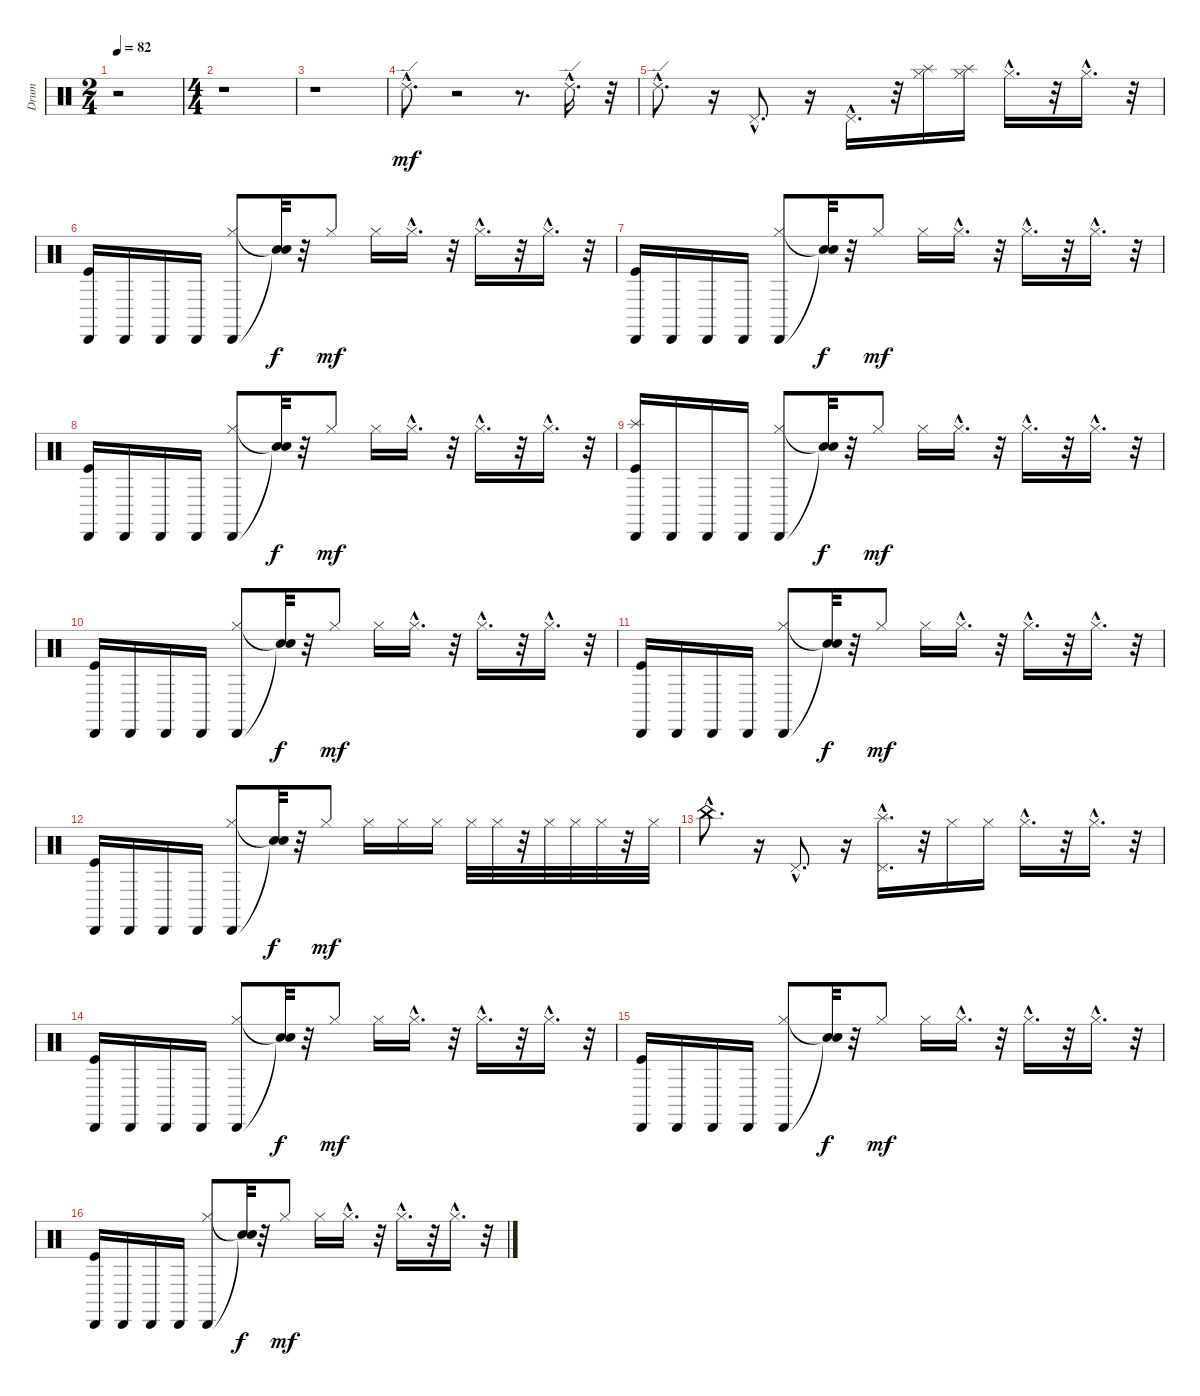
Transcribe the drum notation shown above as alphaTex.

\track ("Drum" "Drum") {instrument percussion}
\staff {score}
\articulation defaults
\ts (2 4)
\tempo 82
\clef neutral
\ks c
r.2{dy mf} |
\ts (4 4)
r.1 |
r.1 |
"Ride (edge) 2"{hac}.8{d} r.2 r.8{d} "Ride (edge) 2"{hac}.16{d} r.32 |
"Ride (edge) 2"{hac}.8{d} r.16 "Pedal Hi-Hat (hit)"{hac}.8{d} r.16 "Pedal Hi-Hat (hit)"{hac}.16{d} r.32 ("Splash (hit)" "Hi-Hat (closed)").16 ("Splash (hit)" "Hi-Hat (closed)").16 "Hi-Hat (closed)"{hac}.16{d} r.32 "Hi-Hat (closed)"{hac}.16{d} r.32 |
("Kick (hit)" "Cabasa (hit)").16 "Cabasa (hit)".16 "Cabasa (hit)".16 "Cabasa (hit)".16 ("Hi-Hat (closed)" "Cabasa (hit)").8 ("Snare (hit)"{t} "Snare (hit)"{t}).32{dy f} r.32 "Hi-Hat (closed)".8{dy mf} "Hi-Hat (closed)".16 "Hi-Hat (closed)"{hac}.16{d} r.32 "Hi-Hat (closed)"{hac}.16{d} r.32 "Hi-Hat (closed)"{hac}.16{d} r.32 |
("Cabasa (hit)" "Kick (hit)").16 "Cabasa (hit)".16 "Cabasa (hit)".16 "Cabasa (hit)".16 ("Cabasa (hit)" "Hi-Hat (closed)").8 ("Snare (hit)"{t} "Snare (hit)"{t}).32{dy f} r.32 "Hi-Hat (closed)".8{dy mf} "Hi-Hat (closed)".16 "Hi-Hat (closed)"{hac}.16{d} r.32 "Hi-Hat (closed)"{hac}.16{d} r.32 "Hi-Hat (closed)"{hac}.16{d} r.32 |
("Cabasa (hit)" "Kick (hit)").16 "Cabasa (hit)".16 "Cabasa (hit)".16 "Cabasa (hit)".16 ("Cabasa (hit)" "Hi-Hat (closed)").8 ("Snare (hit)"{t} "Snare (hit)"{t}).32{dy f} r.32 "Hi-Hat (closed)".8{dy mf} "Hi-Hat (closed)".16 "Hi-Hat (closed)"{hac}.16{d} r.32 "Hi-Hat (closed)"{hac}.16{d} r.32 "Hi-Hat (closed)"{hac}.16{d} r.32 |
("Splash (hit)" "Cabasa (hit)" "Kick (hit)").16 "Cabasa (hit)".16 "Cabasa (hit)".16 "Cabasa (hit)".16 ("Cabasa (hit)" "Hi-Hat (closed)").8 ("Snare (hit)"{t} "Snare (hit)"{t}).32{dy f} r.32 "Hi-Hat (closed)".8{dy mf} "Hi-Hat (closed)".16 "Hi-Hat (closed)"{hac}.16{d} r.32 "Hi-Hat (closed)"{hac}.16{d} r.32 "Hi-Hat (closed)"{hac}.16{d} r.32 |
("Kick (hit)" "Cabasa (hit)").16 "Cabasa (hit)".16 "Cabasa (hit)".16 "Cabasa (hit)".16 ("Cabasa (hit)" "Hi-Hat (closed)").8 ("Snare (hit)"{t} "Snare (hit)"{t}).32{dy f} r.32 "Hi-Hat (closed)".8{dy mf} "Hi-Hat (closed)".16 "Hi-Hat (closed)"{hac}.16{d} r.32 "Hi-Hat (closed)"{hac}.16{d} r.32 "Hi-Hat (closed)"{hac}.16{d} r.32 |
("Kick (hit)" "Cabasa (hit)").16 "Cabasa (hit)".16 "Cabasa (hit)".16 "Cabasa (hit)".16 ("Cabasa (hit)" "Hi-Hat (closed)").8 ("Snare (hit)"{t} "Snare (hit)"{t}).32{dy f} r.32 "Hi-Hat (closed)".8{dy mf} "Hi-Hat (closed)".16 "Hi-Hat (closed)"{hac}.16{d} r.32 "Hi-Hat (closed)"{hac}.16{d} r.32 "Hi-Hat (closed)"{hac}.16{d} r.32 |
("Kick (hit)" "Cabasa (hit)").16 "Cabasa (hit)".16 "Cabasa (hit)".16 "Cabasa (hit)".16 ("Cabasa (hit)" "Hi-Hat (closed)").8 ("Snare (hit)"{t} "Snare (hit)"{t}).32{dy f} r.32 "Hi-Hat (closed)".8{dy mf} "Hi-Hat (closed)".16 "Hi-Hat (closed)".16 "Hi-Hat (closed)".16 "Hi-Hat (closed)".32 "Hi-Hat (closed)".32 r.32 "Hi-Hat (closed)".32 "Hi-Hat (closed)".32 "Hi-Hat (closed)".32 r.32 "Hi-Hat (closed)".32 |
"China (hit)"{hac}.8{d} r.16 "Pedal Hi-Hat (hit)"{hac}.8{d} r.16 ("Splash (hit)"{hac} "Pedal Hi-Hat (hit)"{hac}).16{d} r.32 "Hi-Hat (closed)".16 "Hi-Hat (closed)".16 "Hi-Hat (closed)"{hac}.16{d} r.32 "Hi-Hat (closed)"{hac}.16{d} r.32 |
("Kick (hit)" "Cabasa (hit)").16 "Cabasa (hit)".16 "Cabasa (hit)".16 "Cabasa (hit)".16 ("Hi-Hat (closed)" "Cabasa (hit)").8 ("Snare (hit)"{t} "Snare (hit)"{t}).32{dy f} r.32 "Hi-Hat (closed)".8{dy mf} "Hi-Hat (closed)".16 "Hi-Hat (closed)"{hac}.16{d} r.32 "Hi-Hat (closed)"{hac}.16{d} r.32 "Hi-Hat (closed)"{hac}.16{d} r.32 |
("Kick (hit)" "Cabasa (hit)").16 "Cabasa (hit)".16 "Cabasa (hit)".16 "Cabasa (hit)".16 ("Hi-Hat (closed)" "Cabasa (hit)").8 ("Snare (hit)"{t} "Snare (hit)"{t}).32{dy f} r.32 "Hi-Hat (closed)".8{dy mf} "Hi-Hat (closed)".16 "Hi-Hat (closed)"{hac}.16{d} r.32 "Hi-Hat (closed)"{hac}.16{d} r.32 "Hi-Hat (closed)"{hac}.16{d} r.32 |
("Kick (hit)" "Cabasa (hit)").16 "Cabasa (hit)".16 "Cabasa (hit)".16 "Cabasa (hit)".16 ("Hi-Hat (closed)" "Cabasa (hit)").8 ("Snare (hit)"{t} "Snare (hit)"{t}).32{dy f} r.32 "Hi-Hat (closed)".8{dy mf} "Hi-Hat (closed)".16 "Hi-Hat (closed)"{hac}.16{d} r.32 "Hi-Hat (closed)"{hac}.16{d} r.32 "Hi-Hat (closed)"{hac}.16{d} r.32
